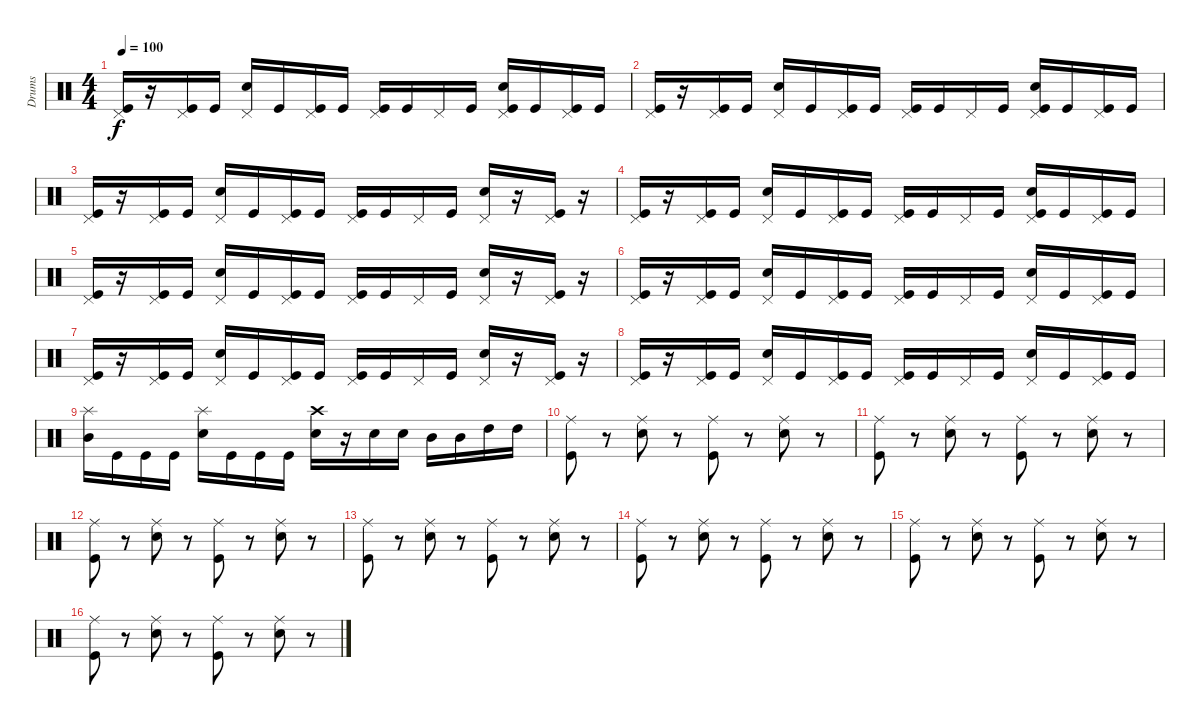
\track ("Drums" "Drums") {instrument percussion}
\staff {score}
\articulation defaults
\ts (4 4)
\tempo 100
\clef neutral
\ks c
("Kick (hit)" "Pedal Hi-Hat (hit)").16{dy f} r.16 ("Kick (hit)" "Pedal Hi-Hat (hit)").16 "Kick (hit)".16 ("Snare (hit) 2" "Pedal Hi-Hat (hit)").16 "Kick (hit)".16 ("Kick (hit)" "Pedal Hi-Hat (hit)").16 "Kick (hit)".16 ("Kick (hit)" "Pedal Hi-Hat (hit)").16 "Kick (hit)".16 "Pedal Hi-Hat (hit)".16 "Kick (hit)".16 ("Kick (hit)" "Snare (hit) 2" "Pedal Hi-Hat (hit)").16 "Kick (hit)".16 ("Kick (hit)" "Pedal Hi-Hat (hit)").16 "Kick (hit)".16 |
("Kick (hit)" "Pedal Hi-Hat (hit)").16 r.16 ("Kick (hit)" "Pedal Hi-Hat (hit)").16 "Kick (hit)".16 ("Snare (hit) 2" "Pedal Hi-Hat (hit)").16 "Kick (hit)".16 ("Kick (hit)" "Pedal Hi-Hat (hit)").16 "Kick (hit)".16 ("Kick (hit)" "Pedal Hi-Hat (hit)").16 "Kick (hit)".16 "Pedal Hi-Hat (hit)".16 "Kick (hit)".16 ("Kick (hit)" "Snare (hit) 2" "Pedal Hi-Hat (hit)").16 "Kick (hit)".16 ("Kick (hit)" "Pedal Hi-Hat (hit)").16 "Kick (hit)".16 |
("Kick (hit)" "Pedal Hi-Hat (hit)").16 r.16 ("Kick (hit)" "Pedal Hi-Hat (hit)").16 "Kick (hit)".16 ("Snare (hit) 2" "Pedal Hi-Hat (hit)").16 "Kick (hit)".16 ("Kick (hit)" "Pedal Hi-Hat (hit)").16 "Kick (hit)".16 ("Kick (hit)" "Pedal Hi-Hat (hit)").16 "Kick (hit)".16 "Pedal Hi-Hat (hit)".16 "Kick (hit)".16 ("Snare (hit) 2" "Pedal Hi-Hat (hit)").16 r.16 ("Kick (hit)" "Pedal Hi-Hat (hit)").16 r.16 |
("Kick (hit)" "Pedal Hi-Hat (hit)").16 r.16 ("Kick (hit)" "Pedal Hi-Hat (hit)").16 "Kick (hit)".16 ("Snare (hit) 2" "Pedal Hi-Hat (hit)").16 "Kick (hit)".16 ("Kick (hit)" "Pedal Hi-Hat (hit)").16 "Kick (hit)".16 ("Kick (hit)" "Pedal Hi-Hat (hit)").16 "Kick (hit)".16 "Pedal Hi-Hat (hit)".16 "Kick (hit)".16 ("Kick (hit)" "Snare (hit) 2" "Pedal Hi-Hat (hit)").16 "Kick (hit)".16 ("Kick (hit)" "Pedal Hi-Hat (hit)").16 "Kick (hit)".16 |
("Kick (hit)" "Pedal Hi-Hat (hit)").16 r.16 ("Kick (hit)" "Pedal Hi-Hat (hit)").16 "Kick (hit)".16 ("Snare (hit) 2" "Pedal Hi-Hat (hit)").16 "Kick (hit)".16 ("Kick (hit)" "Pedal Hi-Hat (hit)").16 "Kick (hit)".16 ("Kick (hit)" "Pedal Hi-Hat (hit)").16 "Kick (hit)".16 "Pedal Hi-Hat (hit)".16 "Kick (hit)".16 ("Snare (hit) 2" "Pedal Hi-Hat (hit)").16 r.16 ("Kick (hit)" "Pedal Hi-Hat (hit)").16 r.16 |
("Kick (hit)" "Pedal Hi-Hat (hit)").16 r.16 ("Kick (hit)" "Pedal Hi-Hat (hit)").16 "Kick (hit)".16 ("Snare (hit) 2" "Pedal Hi-Hat (hit)").16 "Kick (hit)".16 ("Kick (hit)" "Pedal Hi-Hat (hit)").16 "Kick (hit)".16 ("Kick (hit)" "Pedal Hi-Hat (hit)").16 "Kick (hit)".16 "Pedal Hi-Hat (hit)".16 "Kick (hit)".16 ("Snare (hit) 2" "Pedal Hi-Hat (hit)").16 "Kick (hit)".16 ("Kick (hit)" "Pedal Hi-Hat (hit)").16 "Kick (hit)".16 |
("Kick (hit)" "Pedal Hi-Hat (hit)").16 r.16 ("Kick (hit)" "Pedal Hi-Hat (hit)").16 "Kick (hit)".16 ("Snare (hit) 2" "Pedal Hi-Hat (hit)").16 "Kick (hit)".16 ("Kick (hit)" "Pedal Hi-Hat (hit)").16 "Kick (hit)".16 ("Kick (hit)" "Pedal Hi-Hat (hit)").16 "Kick (hit)".16 "Pedal Hi-Hat (hit)".16 "Kick (hit)".16 ("Snare (hit) 2" "Pedal Hi-Hat (hit)").16 r.16 ("Kick (hit)" "Pedal Hi-Hat (hit)").16 r.16 |
("Kick (hit)" "Pedal Hi-Hat (hit)").16 r.16 ("Kick (hit)" "Pedal Hi-Hat (hit)").16 "Kick (hit)".16 ("Snare (hit) 2" "Pedal Hi-Hat (hit)").16 "Kick (hit)".16 ("Kick (hit)" "Pedal Hi-Hat (hit)").16 "Kick (hit)".16 ("Kick (hit)" "Pedal Hi-Hat (hit)").16 "Kick (hit)".16 "Pedal Hi-Hat (hit)".16 "Kick (hit)".16 ("Snare (hit) 2" "Pedal Hi-Hat (hit)").16 "Kick (hit)".16 ("Kick (hit)" "Pedal Hi-Hat (hit)").16 "Kick (hit)".16 |
("Mid Tom (hit)" "Splash (hit)").16 "Kick (hit)".16 "Kick (hit)".16 "Kick (hit)".16 ("Snare (hit) 2" "Splash (hit)").16 "Kick (hit)".16 "Kick (hit)".16 "Kick (hit)".16 ("Snare (hit) 2" "Crash high (hit)").16 r.16 "Snare (hit) 2".16 "Snare (hit) 2".16 "Mid Tom (hit)".16 "Mid Tom (hit)".16 "High Tom (hit)".16 "High Tom (hit)".16 |
("Kick (hit)" "Ride (middle)").8 r.8 ("Snare (hit) 2" "Ride (middle)").8 r.8 ("Kick (hit)" "Ride (middle)").8 r.8 ("Snare (hit) 2" "Ride (middle)").8 r.8 |
("Kick (hit)" "Ride (middle)").8 r.8 ("Snare (hit) 2" "Ride (middle)").8 r.8 ("Kick (hit)" "Ride (middle)").8 r.8 ("Snare (hit) 2" "Ride (middle)").8 r.8 |
("Kick (hit)" "Ride (middle)").8 r.8 ("Snare (hit) 2" "Ride (middle)").8 r.8 ("Kick (hit)" "Ride (middle)").8 r.8 ("Snare (hit) 2" "Ride (middle)").8 r.8 |
("Kick (hit)" "Ride (middle)").8 r.8 ("Snare (hit) 2" "Ride (middle)").8 r.8 ("Kick (hit)" "Ride (middle)").8 r.8 ("Snare (hit) 2" "Ride (middle)").8 r.8 |
("Kick (hit)" "Ride (middle)").8 r.8 ("Snare (hit) 2" "Ride (middle)").8 r.8 ("Kick (hit)" "Ride (middle)").8 r.8 ("Snare (hit) 2" "Ride (middle)").8 r.8 |
("Kick (hit)" "Ride (middle)").8 r.8 ("Snare (hit) 2" "Ride (middle)").8 r.8 ("Kick (hit)" "Ride (middle)").8 r.8 ("Snare (hit) 2" "Ride (middle)").8 r.8 |
("Kick (hit)" "Ride (middle)").8 r.8 ("Snare (hit) 2" "Ride (middle)").8 r.8 ("Kick (hit)" "Ride (middle)").8 r.8 ("Snare (hit) 2" "Ride (middle)").8 r.8
